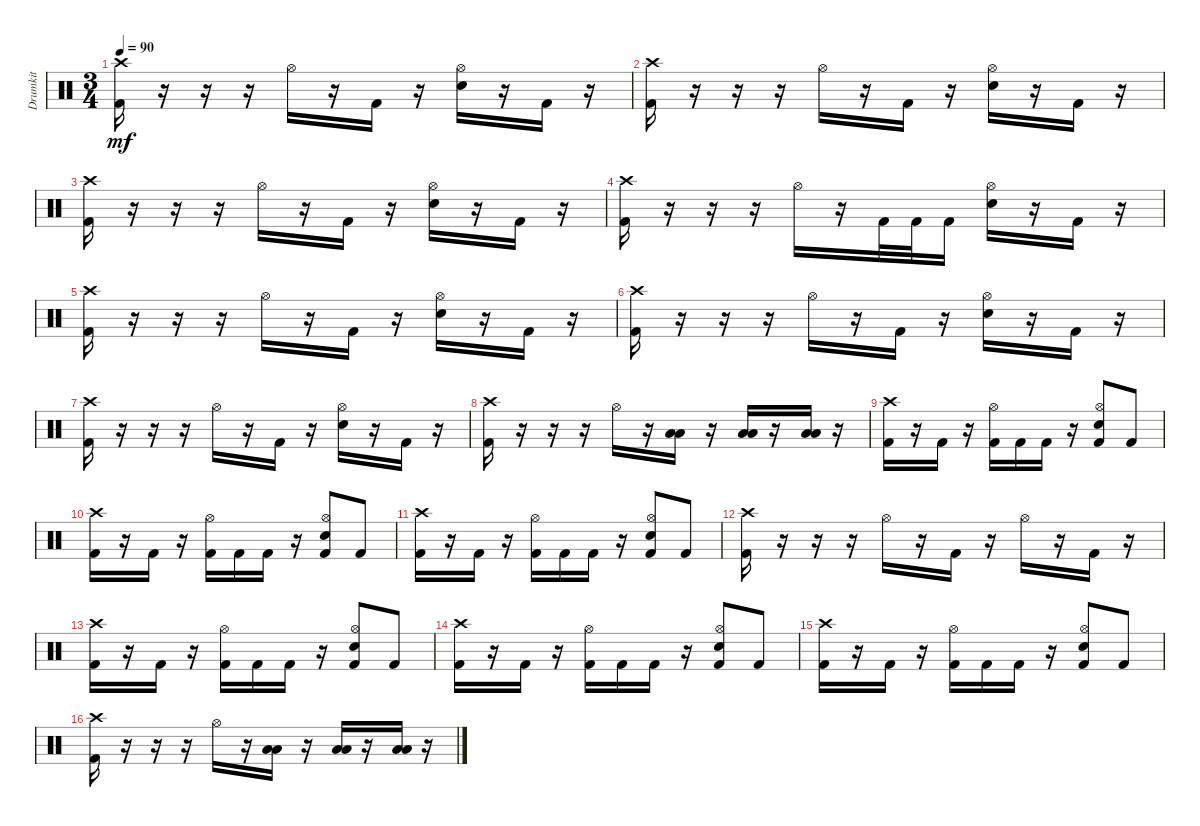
\track ("Drumkit" "Drumkit") {instrument percussion}
\staff {score}
\articulation defaults
\ts (3 4)
\tempo 90
\clef neutral
\ks c
("Crash high (hit)" "Kick (hit) 2").16{dy mf} r.16 r.16 r.16 "Hi-Hat (open)".16 r.16 "Kick (hit) 2".16 r.16 ("Hi-Hat (open)" "Snare (hit) 2").16 r.16 "Kick (hit) 2".16 r.16 |
("Crash high (hit)" "Kick (hit) 2").16 r.16 r.16 r.16 "Hi-Hat (open)".16 r.16 "Kick (hit) 2".16 r.16 ("Hi-Hat (open)" "Snare (hit) 2").16 r.16 "Kick (hit) 2".16 r.16 |
("Crash high (hit)" "Kick (hit) 2").16 r.16 r.16 r.16 "Hi-Hat (open)".16 r.16 "Kick (hit) 2".16 r.16 ("Hi-Hat (open)" "Snare (hit) 2").16 r.16 "Kick (hit) 2".16 r.16 |
("Crash high (hit)" "Kick (hit) 2").16 r.16 r.16 r.16 "Hi-Hat (open)".16 r.16 "Kick (hit) 2".32 "Kick (hit) 2".32 "Kick (hit) 2".16 ("Hi-Hat (open)" "Snare (hit) 2").16 r.16 "Kick (hit) 2".16 r.16 |
("Crash high (hit)" "Kick (hit) 2").16 r.16 r.16 r.16 "Hi-Hat (open)".16 r.16 "Kick (hit) 2".16 r.16 ("Hi-Hat (open)" "Snare (hit) 2").16 r.16 "Kick (hit) 2".16 r.16 |
("Crash high (hit)" "Kick (hit) 2").16 r.16 r.16 r.16 "Hi-Hat (open)".16 r.16 "Kick (hit) 2".16 r.16 ("Hi-Hat (open)" "Snare (hit) 2").16 r.16 "Kick (hit) 2".16 r.16 |
("Crash high (hit)" "Kick (hit) 2").16 r.16 r.16 r.16 "Hi-Hat (open)".16 r.16 "Kick (hit) 2".16 r.16 ("Hi-Hat (open)" "Snare (hit) 2").16 r.16 "Kick (hit) 2".16 r.16 |
("Crash high (hit)" "Kick (hit) 2").16 r.16 r.16 r.16 "Hi-Hat (open)".16 r.16 ("Low Floor Tom (hit)" "Low Tom (hit)").16 r.16 ("Low Tom (hit)" "Low Floor Tom (hit)").16 r.16 ("Low Floor Tom (hit)" "Low Tom (hit)").16 r.16 |
("Crash high (hit)" "Kick (hit) 2").16 r.16 "Kick (hit) 2".16 r.16 ("Hi-Hat (open)" "Kick (hit) 2").16 "Kick (hit) 2".16 "Kick (hit) 2".16 r.16 ("Hi-Hat (open)" "Snare (hit) 2" "Kick (hit) 2").8 "Kick (hit) 2".8 |
("Crash high (hit)" "Kick (hit) 2").16 r.16 "Kick (hit) 2".16 r.16 ("Hi-Hat (open)" "Kick (hit) 2").16 "Kick (hit) 2".16 "Kick (hit) 2".16 r.16 ("Hi-Hat (open)" "Snare (hit) 2" "Kick (hit) 2").8 "Kick (hit) 2".8 |
("Crash high (hit)" "Kick (hit) 2").16 r.16 "Kick (hit) 2".16 r.16 ("Hi-Hat (open)" "Kick (hit) 2").16 "Kick (hit) 2".16 "Kick (hit) 2".16 r.16 ("Hi-Hat (open)" "Snare (hit) 2" "Kick (hit) 2").8 "Kick (hit) 2".8 |
("Crash high (hit)" "Kick (hit) 2").16 r.16 r.16 r.16 "Hi-Hat (open)".16 r.16 "Kick (hit) 2".16 r.16 "Hi-Hat (open)".16 r.16 "Kick (hit) 2".16 r.16 |
("Crash high (hit)" "Kick (hit) 2").16 r.16 "Kick (hit) 2".16 r.16 ("Hi-Hat (open)" "Kick (hit) 2").16 "Kick (hit) 2".16 "Kick (hit) 2".16 r.16 ("Hi-Hat (open)" "Snare (hit) 2" "Kick (hit) 2").8 "Kick (hit) 2".8 |
("Crash high (hit)" "Kick (hit) 2").16 r.16 "Kick (hit) 2".16 r.16 ("Hi-Hat (open)" "Kick (hit) 2").16 "Kick (hit) 2".16 "Kick (hit) 2".16 r.16 ("Hi-Hat (open)" "Snare (hit) 2" "Kick (hit) 2").8 "Kick (hit) 2".8 |
("Crash high (hit)" "Kick (hit) 2").16 r.16 "Kick (hit) 2".16 r.16 ("Hi-Hat (open)" "Kick (hit) 2").16 "Kick (hit) 2".16 "Kick (hit) 2".16 r.16 ("Hi-Hat (open)" "Snare (hit) 2" "Kick (hit) 2").8 "Kick (hit) 2".8 |
("Crash high (hit)" "Kick (hit) 2").16 r.16 r.16 r.16 "Hi-Hat (open)".16 r.16 ("Low Floor Tom (hit)" "Low Tom (hit)").16 r.16 ("Low Tom (hit)" "Low Floor Tom (hit)").16 r.16 ("Low Floor Tom (hit)" "Low Tom (hit)").16 r.16
